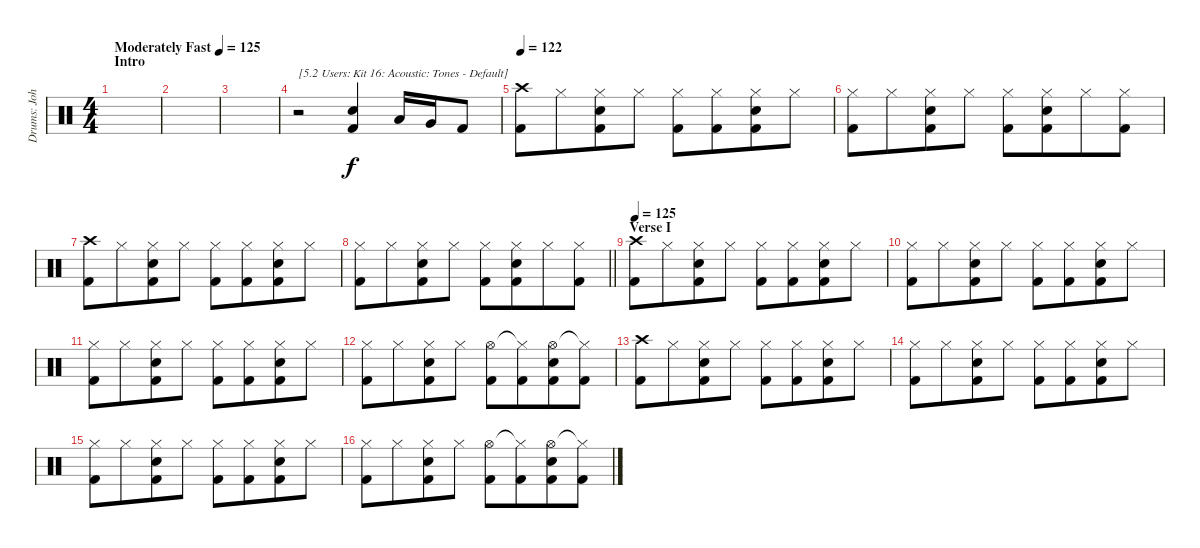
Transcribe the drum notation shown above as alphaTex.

\track ("Drums: John" "Drums: Joh") {instrument percussion}
\staff {score}
\articulation defaults
\ts (4 4)
\section ("" "Intro")
\tempo (125 "Moderately Fast")
\tempo 120
\tempo (125 "Moderately Fast")
\clef neutral
\ks c
|
|
|
r.2{txt "[5.2 Users: Kit 16: Acoustic: Tones - Default]"} ("Electric Snare (hit)" "Kick (hit) 2").4 "Low Tom (hit)".16 "Very Low Tom (hit)".16 "Kick (hit) 2".8 |
\tempo 122
("Crash high (hit)" "Kick (hit) 2").8 "Hi-Hat (closed)".8{beam merge} ("Hi-Hat (closed)" "Snare (hit) 2" "Kick (hit) 2").8 "Hi-Hat (closed)".8 ("Hi-Hat (closed)" "Kick (hit) 2").8 ("Hi-Hat (closed)" "Kick (hit) 2").8{beam merge} ("Hi-Hat (closed)" "Snare (hit) 2" "Kick (hit) 2").8 "Hi-Hat (closed)".8 |
("Hi-Hat (closed)" "Kick (hit) 2").8 "Hi-Hat (closed)".8{beam merge} ("Hi-Hat (closed)" "Snare (hit) 2" "Kick (hit) 2").8 "Hi-Hat (closed)".8 ("Hi-Hat (closed)" "Kick (hit) 2").8 ("Hi-Hat (closed)" "Snare (hit) 2" "Kick (hit) 2").8{beam merge} "Hi-Hat (closed)".8 ("Hi-Hat (closed)" "Kick (hit) 2").8 |
("Crash high (hit)" "Kick (hit) 2").8 "Hi-Hat (closed)".8{beam merge} ("Hi-Hat (closed)" "Snare (hit) 2" "Kick (hit) 2").8 "Hi-Hat (closed)".8 ("Hi-Hat (closed)" "Kick (hit) 2").8 ("Hi-Hat (closed)" "Kick (hit) 2").8{beam merge} ("Hi-Hat (closed)" "Snare (hit) 2" "Kick (hit) 2").8 "Hi-Hat (closed)".8 |
\barLineRight lightlight
("Hi-Hat (closed)" "Kick (hit) 2").8 "Hi-Hat (closed)".8{beam merge} ("Hi-Hat (closed)" "Snare (hit) 2" "Kick (hit) 2").8 "Hi-Hat (closed)".8 ("Hi-Hat (closed)" "Kick (hit) 2").8 ("Hi-Hat (closed)" "Snare (hit) 2" "Kick (hit) 2").8{beam merge} "Hi-Hat (closed)".8 ("Hi-Hat (closed)" "Kick (hit) 2").8 |
\section ("" "Verse I")
\tempo 125
("Crash high (hit)" "Kick (hit) 2").8 "Hi-Hat (closed)".8{beam merge} ("Hi-Hat (closed)" "Snare (hit) 2" "Kick (hit) 2").8 "Hi-Hat (closed)".8 ("Hi-Hat (closed)" "Kick (hit) 2").8 ("Hi-Hat (closed)" "Kick (hit) 2").8{beam merge} ("Hi-Hat (closed)" "Snare (hit) 2" "Kick (hit) 2").8 "Hi-Hat (closed)".8 |
("Hi-Hat (closed)" "Kick (hit) 2").8 "Hi-Hat (closed)".8{beam merge} ("Hi-Hat (closed)" "Snare (hit) 2" "Kick (hit) 2").8 "Hi-Hat (closed)".8 ("Hi-Hat (closed)" "Kick (hit) 2").8 ("Hi-Hat (closed)" "Kick (hit) 2").8{beam merge} ("Hi-Hat (closed)" "Snare (hit) 2" "Kick (hit) 2").8 "Hi-Hat (closed)".8 |
("Hi-Hat (closed)" "Kick (hit) 2").8 "Hi-Hat (closed)".8{beam merge} ("Hi-Hat (closed)" "Snare (hit) 2" "Kick (hit) 2").8 "Hi-Hat (closed)".8 ("Hi-Hat (closed)" "Kick (hit) 2").8 ("Hi-Hat (closed)" "Kick (hit) 2").8{beam merge} ("Hi-Hat (closed)" "Snare (hit) 2" "Kick (hit) 2").8 "Hi-Hat (closed)".8 |
("Hi-Hat (closed)" "Kick (hit) 2").8 "Hi-Hat (closed)".8{beam merge} ("Hi-Hat (closed)" "Snare (hit) 2" "Kick (hit) 2").8 "Hi-Hat (closed)".8 ("Hi-Hat (open)" "Kick (hit) 2").8 ("Hi-Hat (closed)"{t} "Kick (hit) 2").8{beam merge} ("Hi-Hat (open)" "Snare (hit) 2" "Kick (hit) 2").8 ("Hi-Hat (closed)"{t} "Kick (hit) 2").8 |
("Crash high (hit)" "Kick (hit) 2").8 "Hi-Hat (closed)".8{beam merge} ("Hi-Hat (closed)" "Snare (hit) 2" "Kick (hit) 2").8 "Hi-Hat (closed)".8 ("Hi-Hat (closed)" "Kick (hit) 2").8 ("Hi-Hat (closed)" "Kick (hit) 2").8{beam merge} ("Hi-Hat (closed)" "Snare (hit) 2" "Kick (hit) 2").8 "Hi-Hat (closed)".8 |
("Hi-Hat (closed)" "Kick (hit) 2").8 "Hi-Hat (closed)".8{beam merge} ("Hi-Hat (closed)" "Snare (hit) 2" "Kick (hit) 2").8 "Hi-Hat (closed)".8 ("Hi-Hat (closed)" "Kick (hit) 2").8 ("Hi-Hat (closed)" "Kick (hit) 2").8{beam merge} ("Hi-Hat (closed)" "Snare (hit) 2" "Kick (hit) 2").8 "Hi-Hat (closed)".8 |
("Hi-Hat (closed)" "Kick (hit) 2").8 "Hi-Hat (closed)".8{beam merge} ("Hi-Hat (closed)" "Snare (hit) 2" "Kick (hit) 2").8 "Hi-Hat (closed)".8 ("Hi-Hat (closed)" "Kick (hit) 2").8 ("Hi-Hat (closed)" "Kick (hit) 2").8{beam merge} ("Hi-Hat (closed)" "Snare (hit) 2" "Kick (hit) 2").8 "Hi-Hat (closed)".8 |
("Hi-Hat (closed)" "Kick (hit) 2").8 "Hi-Hat (closed)".8{beam merge} ("Hi-Hat (closed)" "Snare (hit) 2" "Kick (hit) 2").8 "Hi-Hat (closed)".8 ("Hi-Hat (open)" "Kick (hit) 2").8 ("Hi-Hat (closed)"{t} "Kick (hit) 2").8{beam merge} ("Hi-Hat (open)" "Snare (hit) 2" "Kick (hit) 2").8 ("Hi-Hat (closed)"{t} "Kick (hit) 2").8
